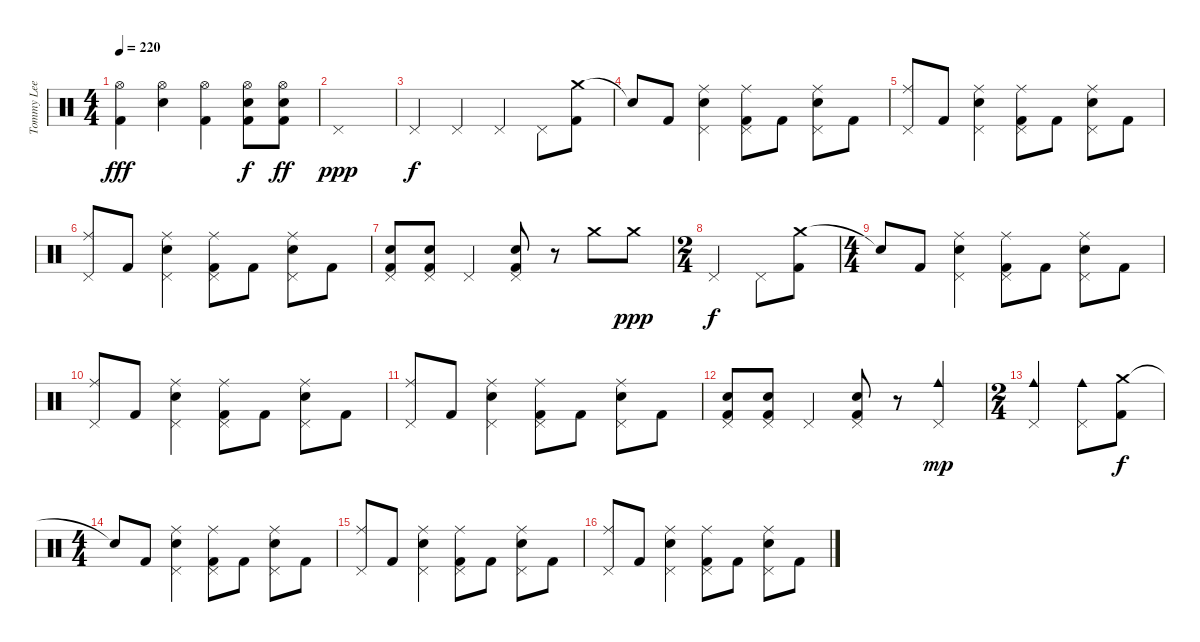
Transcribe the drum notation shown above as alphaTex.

\track ("Tommy Lee - Drums" "Tommy Lee ") {instrument percussion}
\staff {score}
\articulation defaults
\ts (4 4)
\tempo 220
\clef neutral
\ks c
("Hi-Hat (open)" "Kick (hit) 2").4{dy fff} ("Hi-Hat (open)" "Electric Snare (hit)").4 ("Hi-Hat (open)" "Kick (hit) 2").4 ("Hi-Hat (open)" "Electric Snare (hit)" "Kick (hit) 2").8{dy f} ("Hi-Hat (open)" "Electric Snare (hit)" "Kick (hit) 2").8{dy ff} |
"Pedal Hi-Hat (hit)".1{dy ppp} |
"Pedal Hi-Hat (hit)".4{dy f} "Pedal Hi-Hat (hit)".4 "Pedal Hi-Hat (hit)".4 "Pedal Hi-Hat (hit)".8 ("Crash medium (hit)" "Kick (hit) 2").8 |
"Snare (hit)"{t}.8 "Kick (hit) 2".8 ("Ride (middle)" "Pedal Hi-Hat (hit)" "Electric Snare (hit)").4 ("Ride (middle)" "Pedal Hi-Hat (hit)" "Kick (hit) 2").8 "Kick (hit) 2".8 ("Ride (middle)" "Pedal Hi-Hat (hit)" "Electric Snare (hit)").8 "Kick (hit) 2".8 |
("Ride (middle)" "Pedal Hi-Hat (hit)").8 "Kick (hit) 2".8 ("Ride (middle)" "Pedal Hi-Hat (hit)" "Electric Snare (hit)").4 ("Ride (middle)" "Pedal Hi-Hat (hit)" "Kick (hit) 2").8 "Kick (hit) 2".8 ("Ride (middle)" "Pedal Hi-Hat (hit)" "Electric Snare (hit)").8 "Kick (hit) 2".8 |
("Ride (middle)" "Pedal Hi-Hat (hit)").8 "Kick (hit) 2".8 ("Ride (middle)" "Pedal Hi-Hat (hit)" "Electric Snare (hit)").4 ("Ride (middle)" "Pedal Hi-Hat (hit)" "Kick (hit) 2").8 "Kick (hit) 2".8 ("Ride (middle)" "Pedal Hi-Hat (hit)" "Electric Snare (hit)").8 "Kick (hit) 2".8 |
("Pedal Hi-Hat (hit)" "Electric Snare (hit)" "Kick (hit) 2").8 ("Pedal Hi-Hat (hit)" "Electric Snare (hit)" "Kick (hit) 2").8 "Pedal Hi-Hat (hit)".4 ("Pedal Hi-Hat (hit)" "Electric Snare (hit)" "Kick (hit) 2").8 r.8 "Crash medium (hit)".8 "Crash medium (hit)".8{dy ppp} |
\ts (2 4)
"Pedal Hi-Hat (hit)".4{dy f} "Pedal Hi-Hat (hit)".8 ("Crash medium (hit)" "Kick (hit) 2").8 |
\ts (4 4)
"Snare (hit)"{t}.8 "Kick (hit) 2".8 ("Ride (middle)" "Pedal Hi-Hat (hit)" "Electric Snare (hit)").4 ("Ride (middle)" "Pedal Hi-Hat (hit)" "Kick (hit) 2").8 "Kick (hit) 2".8 ("Ride (middle)" "Pedal Hi-Hat (hit)" "Electric Snare (hit)").8 "Kick (hit) 2".8 |
("Ride (middle)" "Pedal Hi-Hat (hit)").8 "Kick (hit) 2".8 ("Ride (middle)" "Pedal Hi-Hat (hit)" "Electric Snare (hit)").4 ("Ride (middle)" "Pedal Hi-Hat (hit)" "Kick (hit) 2").8 "Kick (hit) 2".8 ("Ride (middle)" "Pedal Hi-Hat (hit)" "Electric Snare (hit)").8 "Kick (hit) 2".8 |
("Ride (middle)" "Pedal Hi-Hat (hit)").8 "Kick (hit) 2".8 ("Ride (middle)" "Pedal Hi-Hat (hit)" "Electric Snare (hit)").4 ("Ride (middle)" "Pedal Hi-Hat (hit)" "Kick (hit) 2").8 "Kick (hit) 2".8 ("Ride (middle)" "Pedal Hi-Hat (hit)" "Electric Snare (hit)").8 "Kick (hit) 2".8 |
("Pedal Hi-Hat (hit)" "Electric Snare (hit)" "Kick (hit) 2").8 ("Pedal Hi-Hat (hit)" "Electric Snare (hit)" "Kick (hit) 2").8 "Pedal Hi-Hat (hit)".4 ("Pedal Hi-Hat (hit)" "Electric Snare (hit)" "Kick (hit) 2").8 r.8 ("Cowbell medium (hit)" "Pedal Hi-Hat (hit)").4{dy mp} |
\ts (2 4)
("Cowbell medium (hit)" "Pedal Hi-Hat (hit)").4 ("Cowbell medium (hit)" "Pedal Hi-Hat (hit)").8 ("Crash medium (hit)" "Kick (hit) 2").8{dy f} |
\ts (4 4)
"Snare (hit)"{t}.8 "Kick (hit) 2".8 ("Ride (middle)" "Pedal Hi-Hat (hit)" "Electric Snare (hit)").4 ("Ride (middle)" "Pedal Hi-Hat (hit)" "Kick (hit) 2").8 "Kick (hit) 2".8 ("Ride (middle)" "Pedal Hi-Hat (hit)" "Electric Snare (hit)").8 "Kick (hit) 2".8 |
("Ride (middle)" "Pedal Hi-Hat (hit)").8 "Kick (hit) 2".8 ("Ride (middle)" "Pedal Hi-Hat (hit)" "Electric Snare (hit)").4 ("Ride (middle)" "Pedal Hi-Hat (hit)" "Kick (hit) 2").8 "Kick (hit) 2".8 ("Ride (middle)" "Pedal Hi-Hat (hit)" "Electric Snare (hit)").8 "Kick (hit) 2".8 |
("Ride (middle)" "Pedal Hi-Hat (hit)").8 "Kick (hit) 2".8 ("Ride (middle)" "Pedal Hi-Hat (hit)" "Electric Snare (hit)").4 ("Ride (middle)" "Pedal Hi-Hat (hit)" "Kick (hit) 2").8 "Kick (hit) 2".8 ("Ride (middle)" "Pedal Hi-Hat (hit)" "Electric Snare (hit)").8 "Kick (hit) 2".8
